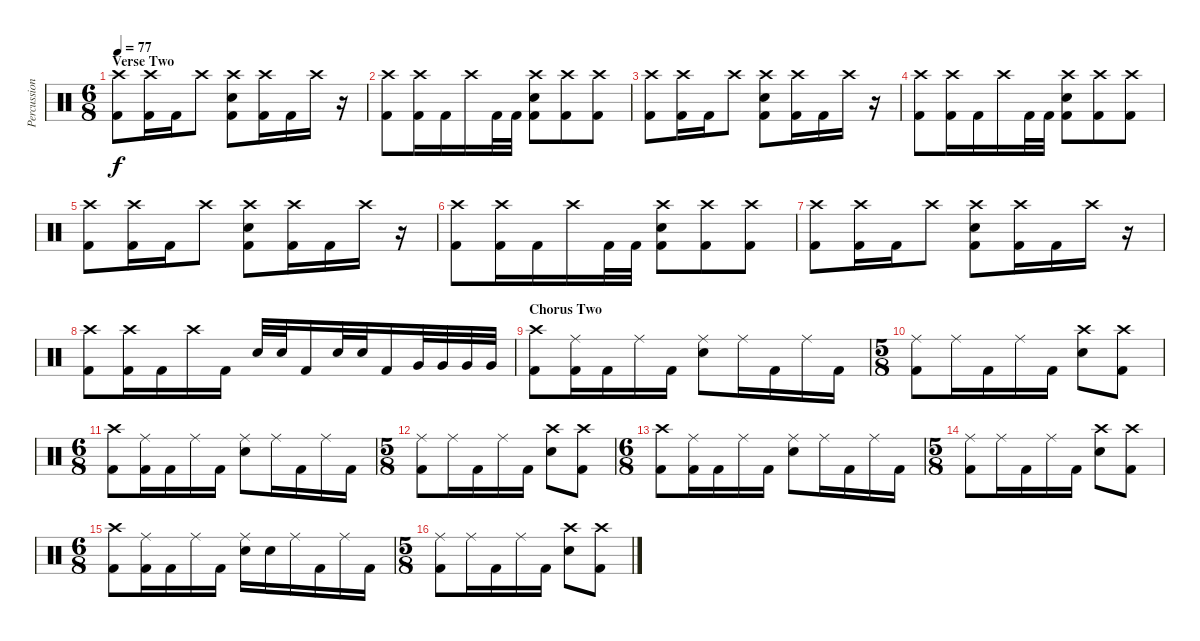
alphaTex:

\track ("Percussion" "Percussion") {instrument percussion}
\staff {score}
\articulation defaults
\ts (6 8)
\section ("" "Verse Two")
\tempo 77
\clef neutral
\ks c
("Crash high (hit)" "Kick (hit) 2").8{dy f} ("Crash high (hit)" "Kick (hit) 2").16 "Kick (hit) 2".16 "Crash high (hit)".8 ("Crash high (hit)" "Electric Snare (hit)" "Kick (hit) 2").8 ("Crash high (hit)" "Kick (hit) 2").16 "Kick (hit) 2".16 "Crash high (hit)".16 r.16 |
("Crash high (hit)" "Kick (hit) 2").8 ("Crash high (hit)" "Kick (hit) 2").16 "Kick (hit) 2".16 "Crash high (hit)".16 "Kick (hit) 2".32 "Kick (hit) 2".32 ("Crash high (hit)" "Electric Snare (hit)" "Kick (hit) 2").8 ("Crash high (hit)" "Kick (hit) 2").8 ("Crash high (hit)" "Kick (hit) 2").8 |
("Crash high (hit)" "Kick (hit) 2").8 ("Crash high (hit)" "Kick (hit) 2").16 "Kick (hit) 2".16 "Crash high (hit)".8 ("Crash high (hit)" "Electric Snare (hit)" "Kick (hit) 2").8 ("Crash high (hit)" "Kick (hit) 2").16 "Kick (hit) 2".16 "Crash high (hit)".16 r.16 |
("Crash high (hit)" "Kick (hit) 2").8 ("Crash high (hit)" "Kick (hit) 2").16 "Kick (hit) 2".16 "Crash high (hit)".16 "Kick (hit) 2".32 "Kick (hit) 2".32 ("Crash high (hit)" "Electric Snare (hit)" "Kick (hit) 2").8 ("Crash high (hit)" "Kick (hit) 2").8 ("Crash high (hit)" "Kick (hit) 2").8 |
("Crash high (hit)" "Kick (hit) 2").8 ("Crash high (hit)" "Kick (hit) 2").16 "Kick (hit) 2".16 "Crash high (hit)".8 ("Crash high (hit)" "Electric Snare (hit)" "Kick (hit) 2").8 ("Crash high (hit)" "Kick (hit) 2").16 "Kick (hit) 2".16 "Crash high (hit)".16 r.16 |
("Crash high (hit)" "Kick (hit) 2").8 ("Crash high (hit)" "Kick (hit) 2").16 "Kick (hit) 2".16 "Crash high (hit)".16 "Kick (hit) 2".32 "Kick (hit) 2".32 ("Crash high (hit)" "Electric Snare (hit)" "Kick (hit) 2").8 ("Crash high (hit)" "Kick (hit) 2").8 ("Crash high (hit)" "Kick (hit) 2").8 |
("Crash high (hit)" "Kick (hit) 2").8 ("Crash high (hit)" "Kick (hit) 2").16 "Kick (hit) 2".16 "Crash high (hit)".8 ("Crash high (hit)" "Electric Snare (hit)" "Kick (hit) 2").8 ("Crash high (hit)" "Kick (hit) 2").16 "Kick (hit) 2".16 "Crash high (hit)".16 r.16 |
("Crash high (hit)" "Kick (hit) 2").8 ("Crash high (hit)" "Kick (hit) 2").16 "Kick (hit) 2".16 "Crash high (hit)".16 "Kick (hit) 2".16 "Electric Snare (hit)".32 "Electric Snare (hit)".32 "Kick (hit) 2".16 "Electric Snare (hit)".32 "Electric Snare (hit)".32 "Kick (hit) 2".16 "Very Low Tom (hit)".32 "Very Low Tom (hit)".32 "Very Low Tom (hit)".32 "Very Low Tom (hit)".32 |
\section ("" "Chorus Two")
("Crash high (hit)" "Kick (hit) 2").8 ("Ride (middle)" "Kick (hit) 2").16 "Kick (hit) 2".16 "Ride (middle)".16 "Kick (hit) 2".16 ("Ride (middle)" "Electric Snare (hit)").8 "Ride (middle)".16 "Kick (hit) 2".16 "Ride (middle)".16 "Kick (hit) 2".16 |
\ts (5 8)
("Ride (middle)" "Kick (hit) 2").8 "Ride (middle)".16 "Kick (hit) 2".16 "Ride (middle)".16 "Kick (hit) 2".16 ("Crash high (hit)" "Electric Snare (hit)").8 ("Crash high (hit)" "Kick (hit) 2").8 |
\ts (6 8)
("Crash high (hit)" "Kick (hit) 2").8 ("Ride (middle)" "Kick (hit) 2").16 "Kick (hit) 2".16 "Ride (middle)".16 "Kick (hit) 2".16 ("Ride (middle)" "Electric Snare (hit)").8 "Ride (middle)".16 "Kick (hit) 2".16 "Ride (middle)".16 "Kick (hit) 2".16 |
\ts (5 8)
("Ride (middle)" "Kick (hit) 2").8 "Ride (middle)".16 "Kick (hit) 2".16 "Ride (middle)".16 "Kick (hit) 2".16 ("Crash high (hit)" "Electric Snare (hit)").8 ("Crash high (hit)" "Kick (hit) 2").8 |
\ts (6 8)
("Crash high (hit)" "Kick (hit) 2").8 ("Ride (middle)" "Kick (hit) 2").16 "Kick (hit) 2".16 "Ride (middle)".16 "Kick (hit) 2".16 ("Ride (middle)" "Electric Snare (hit)").8 "Ride (middle)".16 "Kick (hit) 2".16 "Ride (middle)".16 "Kick (hit) 2".16 |
\ts (5 8)
("Ride (middle)" "Kick (hit) 2").8 "Ride (middle)".16 "Kick (hit) 2".16 "Ride (middle)".16 "Kick (hit) 2".16 ("Crash high (hit)" "Electric Snare (hit)").8 ("Crash high (hit)" "Kick (hit) 2").8 |
\ts (6 8)
("Crash high (hit)" "Kick (hit) 2").8 ("Ride (middle)" "Kick (hit) 2").16 "Kick (hit) 2".16 "Ride (middle)".16 "Kick (hit) 2".16 ("Ride (middle)" "Electric Snare (hit)").16 "Electric Snare (hit)".16 "Ride (middle)".16 "Kick (hit) 2".16 "Ride (middle)".16 "Kick (hit) 2".16 |
\ts (5 8)
("Ride (middle)" "Kick (hit) 2").8 "Ride (middle)".16 "Kick (hit) 2".16 "Ride (middle)".16 "Kick (hit) 2".16 ("Crash high (hit)" "Electric Snare (hit)").8 ("Crash high (hit)" "Kick (hit) 2").8
